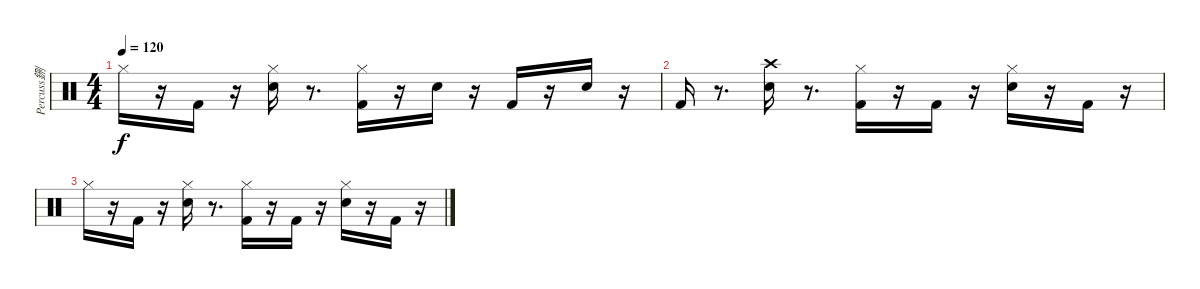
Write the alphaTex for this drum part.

\track ("Percuss鉶" "Percuss鉶") {instrument percussion}
\staff {score}
\articulation defaults
\ts (4 4)
\tempo 120
\clef neutral
\ks c "Hi-Hat (closed)".16{dy f volume 0}
r.16 "Kick (hit) 2".16 r.16 ("Hi-Hat (closed)" "Snare (hit) 2").16 r.8{d} ("Hi-Hat (closed)" "Kick (hit) 2").16 r.16 "Snare (hit) 2".16 r.16 "Kick (hit) 2".16 r.16 "Snare (hit) 2".16 r.16 |
"Kick (hit) 2".16 r.8{d} ("Crash high (hit)" "Snare (hit) 2").16 r.8{d} ("Hi-Hat (closed)" "Kick (hit) 2").16 r.16 "Kick (hit) 2".16 r.16 ("Hi-Hat (closed)" "Snare (hit) 2").16 r.16 "Kick (hit) 2".16 r.16 |
"Hi-Hat (closed)".16 r.16 "Kick (hit) 2".16 r.16 ("Hi-Hat (closed)" "Snare (hit) 2").16 r.8{d} ("Hi-Hat (closed)" "Kick (hit) 2").16 r.16 "Kick (hit) 2".16 r.16 ("Hi-Hat (closed)" "Snare (hit) 2").16 r.16 "Kick (hit) 2".16 r.16
